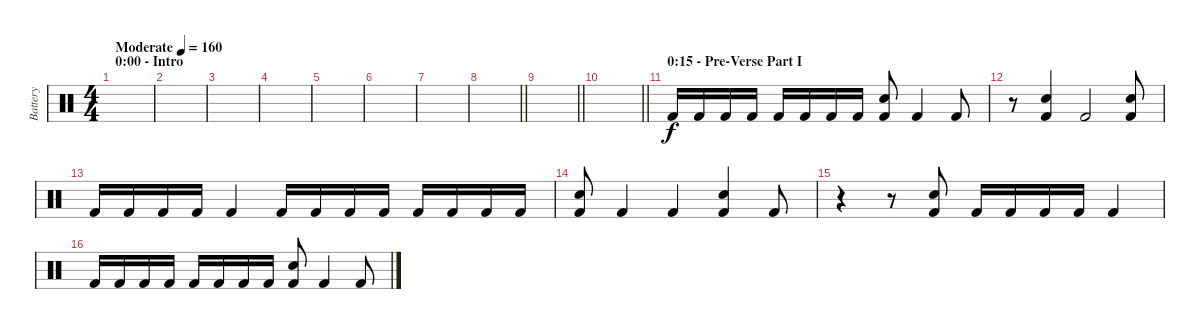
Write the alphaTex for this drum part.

\track ("Battery" "Battery") {instrument percussion}
\staff {score}
\articulation defaults
\ts (4 4)
\section ("" "0:00 - Intro")
\tempo (160 "Moderate")
\clef neutral
\ks c
|
|
|
|
|
|
|
\barLineRight lightlight
|
\barLineRight lightlight
|
\barLineRight lightlight
|
\section ("" "0:15 - Pre-Verse Part I")
"Kick (hit) 2".16 "Kick (hit) 2".16 "Kick (hit) 2".16 "Kick (hit) 2".16 "Kick (hit) 2".16 "Kick (hit) 2".16 "Kick (hit) 2".16 "Kick (hit) 2".16 ("Electric Snare (hit)" "Kick (hit) 2").8 "Kick (hit) 2".4 "Kick (hit) 2".8 |
r.8 ("Electric Snare (hit)" "Kick (hit) 2").4 "Kick (hit) 2".2 ("Electric Snare (hit)" "Kick (hit) 2").8 |
"Kick (hit) 2".16 "Kick (hit) 2".16 "Kick (hit) 2".16 "Kick (hit) 2".16 "Kick (hit) 2".4 "Kick (hit) 2".16 "Kick (hit) 2".16 "Kick (hit) 2".16 "Kick (hit) 2".16 "Kick (hit) 2".16 "Kick (hit) 2".16 "Kick (hit) 2".16 "Kick (hit) 2".16 |
("Electric Snare (hit)" "Kick (hit) 2").8 "Kick (hit) 2".4 "Kick (hit) 2".4 ("Electric Snare (hit)" "Kick (hit) 2").4 "Kick (hit) 2".8 |
r.4 r.8 ("Electric Snare (hit)" "Kick (hit) 2").8 "Kick (hit) 2".16 "Kick (hit) 2".16 "Kick (hit) 2".16 "Kick (hit) 2".16 "Kick (hit) 2".4 |
"Kick (hit) 2".16 "Kick (hit) 2".16 "Kick (hit) 2".16 "Kick (hit) 2".16 "Kick (hit) 2".16 "Kick (hit) 2".16 "Kick (hit) 2".16 "Kick (hit) 2".16 ("Electric Snare (hit)" "Kick (hit) 2").8 "Kick (hit) 2".4 "Kick (hit) 2".8
